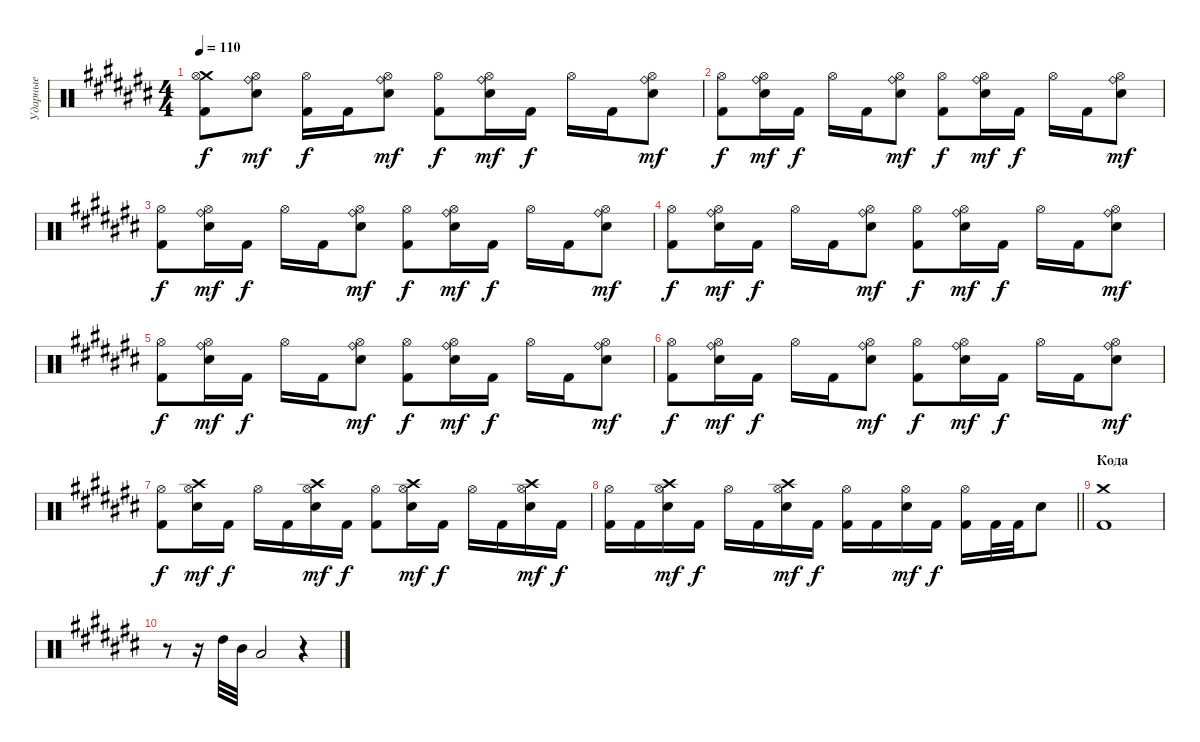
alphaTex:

\track ("Ударные" "Ударные") {instrument percussion}
\staff {score}
\articulation defaults
\ts (4 4)
\tempo 110
\clef neutral
\ks a#minor
("Crash medium (hit)" "Kick (hit) 2" "Hi-Hat (open)").8{dy f} ("Electric Snare (hit)" "Hi-Hat (open)" "Ride (bell)").8{dy mf} ("Kick (hit) 2" "Hi-Hat (open)").16{dy f} "Kick (hit) 2".16 ("Electric Snare (hit)" "Hi-Hat (open)" "Ride (bell)").8{dy mf} ("Kick (hit) 2" "Hi-Hat (open)").8{dy f} ("Electric Snare (hit)" "Hi-Hat (open)" "Ride (bell)").16{dy mf} "Kick (hit) 2".16{dy f} "Hi-Hat (open)".16 "Kick (hit) 2".16 ("Electric Snare (hit)" "Hi-Hat (open)" "Ride (bell)").8{dy mf} |
("Kick (hit) 2" "Hi-Hat (open)").8{dy f} ("Electric Snare (hit)" "Hi-Hat (open)" "Ride (bell)").16{dy mf} "Kick (hit) 2".16{dy f} "Hi-Hat (open)".16 "Kick (hit) 2".16 ("Electric Snare (hit)" "Hi-Hat (open)" "Ride (bell)").8{dy mf} ("Kick (hit) 2" "Hi-Hat (open)").8{dy f} ("Electric Snare (hit)" "Hi-Hat (open)" "Ride (bell)").16{dy mf} "Kick (hit) 2".16{dy f} "Hi-Hat (open)".16 "Kick (hit) 2".16 ("Electric Snare (hit)" "Hi-Hat (open)" "Ride (bell)").8{dy mf} |
("Kick (hit) 2" "Hi-Hat (open)").8{dy f} ("Electric Snare (hit)" "Hi-Hat (open)" "Ride (bell)").16{dy mf} "Kick (hit) 2".16{dy f} "Hi-Hat (open)".16 "Kick (hit) 2".16 ("Electric Snare (hit)" "Hi-Hat (open)" "Ride (bell)").8{dy mf} ("Kick (hit) 2" "Hi-Hat (open)").8{dy f} ("Electric Snare (hit)" "Hi-Hat (open)" "Ride (bell)").16{dy mf} "Kick (hit) 2".16{dy f} "Hi-Hat (open)".16 "Kick (hit) 2".16 ("Electric Snare (hit)" "Hi-Hat (open)" "Ride (bell)").8{dy mf} |
("Kick (hit) 2" "Hi-Hat (open)").8{dy f} ("Electric Snare (hit)" "Hi-Hat (open)" "Ride (bell)").16{dy mf} "Kick (hit) 2".16{dy f} "Hi-Hat (open)".16 "Kick (hit) 2".16 ("Electric Snare (hit)" "Hi-Hat (open)" "Ride (bell)").8{dy mf} ("Kick (hit) 2" "Hi-Hat (open)").8{dy f} ("Electric Snare (hit)" "Hi-Hat (open)" "Ride (bell)").16{dy mf} "Kick (hit) 2".16{dy f} "Hi-Hat (open)".16 "Kick (hit) 2".16 ("Electric Snare (hit)" "Hi-Hat (open)" "Ride (bell)").8{dy mf} |
("Kick (hit) 2" "Hi-Hat (open)").8{dy f} ("Electric Snare (hit)" "Hi-Hat (open)" "Ride (bell)").16{dy mf} "Kick (hit) 2".16{dy f} "Hi-Hat (open)".16 "Kick (hit) 2".16 ("Electric Snare (hit)" "Hi-Hat (open)" "Ride (bell)").8{dy mf} ("Kick (hit) 2" "Hi-Hat (open)").8{dy f} ("Electric Snare (hit)" "Hi-Hat (open)" "Ride (bell)").16{dy mf} "Kick (hit) 2".16{dy f} "Hi-Hat (open)".16 "Kick (hit) 2".16 ("Electric Snare (hit)" "Hi-Hat (open)" "Ride (bell)").8{dy mf} |
("Kick (hit) 2" "Hi-Hat (open)").8{dy f} ("Electric Snare (hit)" "Hi-Hat (open)" "Ride (bell)").16{dy mf} "Kick (hit) 2".16{dy f} "Hi-Hat (open)".16 "Kick (hit) 2".16 ("Electric Snare (hit)" "Hi-Hat (open)" "Ride (bell)").8{dy mf} ("Kick (hit) 2" "Hi-Hat (open)").8{dy f} ("Electric Snare (hit)" "Hi-Hat (open)" "Ride (bell)").16{dy mf} "Kick (hit) 2".16{dy f} "Hi-Hat (open)".16 "Kick (hit) 2".16 ("Electric Snare (hit)" "Hi-Hat (open)" "Ride (bell)").8{dy mf} |
("Kick (hit) 2" "Hi-Hat (open)").8{dy f} ("Electric Snare (hit)" "Hi-Hat (open)" "Crash high (hit)").16{dy mf} "Kick (hit) 2".16{dy f} "Hi-Hat (open)".16 "Kick (hit) 2".16 ("Electric Snare (hit)" "Hi-Hat (open)" "Crash high (hit)").16{dy mf} "Kick (hit) 2".16{dy f} ("Kick (hit) 2" "Hi-Hat (open)").8 ("Electric Snare (hit)" "Hi-Hat (open)" "Crash high (hit)").16{dy mf} "Kick (hit) 2".16{dy f} "Hi-Hat (open)".16 "Kick (hit) 2".16 ("Electric Snare (hit)" "Hi-Hat (open)" "Crash high (hit)").16{dy mf} "Kick (hit) 2".16{dy f} |
\barLineRight lightlight
("Kick (hit) 2" "Hi-Hat (open)").16 "Kick (hit) 2".16 ("Electric Snare (hit)" "Hi-Hat (open)" "Crash high (hit)").16{dy mf} "Kick (hit) 2".16{dy f} "Hi-Hat (open)".16 "Kick (hit) 2".16 ("Electric Snare (hit)" "Hi-Hat (open)" "Crash high (hit)").16{dy mf} "Kick (hit) 2".16{dy f} ("Kick (hit) 2" "Hi-Hat (open)").16 "Kick (hit) 2".16 ("Electric Snare (hit)" "Hi-Hat (open)").16{dy mf} "Kick (hit) 2".16{dy f} ("Kick (hit) 2" "Hi-Hat (open)").16 "Kick (hit) 2".32 "Kick (hit) 2".32 "Electric Snare (hit)".8 |
\section ("" "Кода")
("Crash medium (hit)" "Kick (hit) 2").1 |
r.8 r.16 "High Tom (hit)".32 "Mid Tom (hit)".32 "Low Tom (hit)".2 r.4
